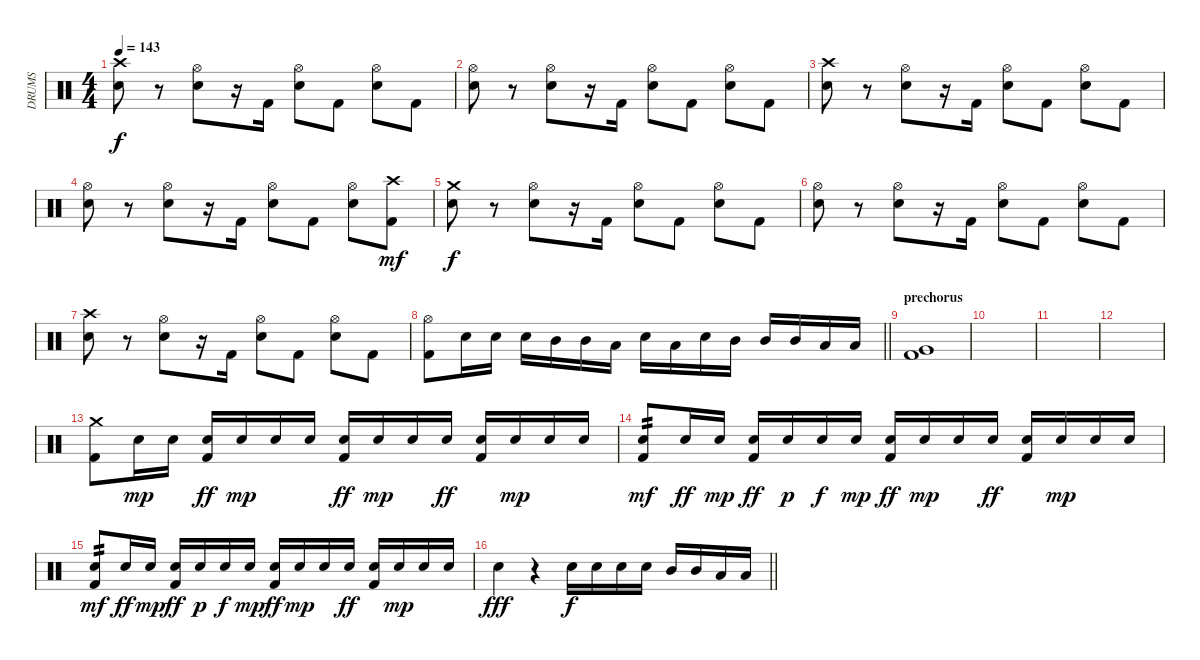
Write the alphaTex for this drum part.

\track ("DRUMS" "DRUMS") {instrument percussion}
\staff {score}
\articulation defaults
\ts (4 4)
\tempo 143
\clef neutral
\ks c
("Crash high (hit)" "Electric Snare (hit)").8{dy f} r.8 ("Hi-Hat (open)" "Electric Snare (hit)").8 r.16 "Kick (hit) 2".16 ("Hi-Hat (open)" "Electric Snare (hit)").8 "Kick (hit) 2".8 ("Hi-Hat (open)" "Electric Snare (hit)").8 "Kick (hit) 2".8 |
("Hi-Hat (open)" "Electric Snare (hit)").8 r.8 ("Hi-Hat (open)" "Electric Snare (hit)").8 r.16 "Kick (hit) 2".16 ("Hi-Hat (open)" "Electric Snare (hit)").8 "Kick (hit) 2".8 ("Hi-Hat (open)" "Electric Snare (hit)").8 "Kick (hit) 2".8 |
("Crash high (hit)" "Electric Snare (hit)").8 r.8 ("Hi-Hat (open)" "Electric Snare (hit)").8 r.16 "Kick (hit) 2".16 ("Hi-Hat (open)" "Electric Snare (hit)").8 "Kick (hit) 2".8 ("Hi-Hat (open)" "Electric Snare (hit)").8 "Kick (hit) 2".8 |
("Hi-Hat (open)" "Electric Snare (hit)").8 r.8 ("Hi-Hat (open)" "Electric Snare (hit)").8 r.16 "Kick (hit) 2".16 ("Hi-Hat (open)" "Electric Snare (hit)").8 "Kick (hit) 2".8 ("Hi-Hat (open)" "Electric Snare (hit)").8 ("Crash high (hit)" "Kick (hit) 2").8{dy mf} |
("Crash medium (hit)" "Electric Snare (hit)").8{dy f} r.8 ("Hi-Hat (open)" "Electric Snare (hit)").8 r.16 "Kick (hit) 2".16 ("Hi-Hat (open)" "Electric Snare (hit)").8 "Kick (hit) 2".8 ("Hi-Hat (open)" "Electric Snare (hit)").8 "Kick (hit) 2".8 |
("Hi-Hat (open)" "Electric Snare (hit)").8 r.8 ("Hi-Hat (open)" "Electric Snare (hit)").8 r.16 "Kick (hit) 2".16 ("Hi-Hat (open)" "Electric Snare (hit)").8 "Kick (hit) 2".8 ("Hi-Hat (open)" "Electric Snare (hit)").8 "Kick (hit) 2".8 |
("Crash high (hit)" "Electric Snare (hit)").8 r.8 ("Hi-Hat (open)" "Electric Snare (hit)").8 r.16 "Kick (hit) 2".16 ("Hi-Hat (open)" "Electric Snare (hit)").8 "Kick (hit) 2".8 ("Hi-Hat (open)" "Electric Snare (hit)").8 "Kick (hit) 2".8 |
\barLineRight lightlight
("Hi-Hat (open)" "Kick (hit) 2").8 "Electric Snare (hit)".16 "Electric Snare (hit)".16 "Electric Snare (hit)".16 "Mid Tom (hit)".16 "Mid Tom (hit)".16 "Low Tom (hit)".16 "Electric Snare (hit)".16 "Low Tom (hit)".16 "Electric Snare (hit)".16 "Mid Tom (hit)".16 "Mid Tom (hit)".16 "Mid Tom (hit)".16 "Low Tom (hit)".16 "Low Tom (hit)".16 |
\section ("" "prechorus")
("Very Low Tom (hit)" "Kick (hit) 2").1 |
|
|
|
("Crash medium (hit)" "Kick (hit) 2").8 "Electric Snare (hit)".16{dy mp} "Electric Snare (hit)".16 ("Electric Snare (hit)" "Kick (hit) 2").16{dy ff} "Electric Snare (hit)".16{dy mp} "Electric Snare (hit)".16 "Electric Snare (hit)".16 ("Electric Snare (hit)" "Kick (hit) 2").16{dy ff} "Electric Snare (hit)".16{dy mp} "Electric Snare (hit)".16 "Electric Snare (hit)".16{dy ff} ("Electric Snare (hit)" "Kick (hit) 2").16 "Electric Snare (hit)".16{dy mp} "Electric Snare (hit)".16 "Electric Snare (hit)".16 |
("Electric Snare (hit)" "Kick (hit) 2").8{tp 2 dy mf} "Electric Snare (hit)".16{dy ff} "Electric Snare (hit)".16{dy mp} ("Electric Snare (hit)" "Kick (hit) 2").16{dy ff} "Electric Snare (hit)".16{dy p} "Electric Snare (hit)".16{dy f} "Electric Snare (hit)".16{dy mp} ("Electric Snare (hit)" "Kick (hit) 2").16{dy ff} "Electric Snare (hit)".16{dy mp} "Electric Snare (hit)".16 "Electric Snare (hit)".16{dy ff} ("Electric Snare (hit)" "Kick (hit) 2").16 "Electric Snare (hit)".16{dy mp} "Electric Snare (hit)".16 "Electric Snare (hit)".16 |
("Electric Snare (hit)" "Kick (hit) 2").8{tp 2 dy mf} "Electric Snare (hit)".16{dy ff} "Electric Snare (hit)".16{dy mp} ("Electric Snare (hit)" "Kick (hit) 2").16{dy ff} "Electric Snare (hit)".16{dy p} "Electric Snare (hit)".16{dy f} "Electric Snare (hit)".16{dy mp} ("Electric Snare (hit)" "Kick (hit) 2").16{dy ff} "Electric Snare (hit)".16{dy mp} "Electric Snare (hit)".16 "Electric Snare (hit)".16{dy ff} ("Electric Snare (hit)" "Kick (hit) 2").16 "Electric Snare (hit)".16{dy mp} "Electric Snare (hit)".16 "Electric Snare (hit)".16 |
\barLineRight lightlight "Electric Snare (hit)".4{dy fff}
r.4 "Electric Snare (hit)".16{dy f} "Electric Snare (hit)".16 "Electric Snare (hit)".16 "Electric Snare (hit)".16 "Mid Tom (hit)".16 "Mid Tom (hit)".16 "Low Tom (hit)".16 "Low Tom (hit)".16
